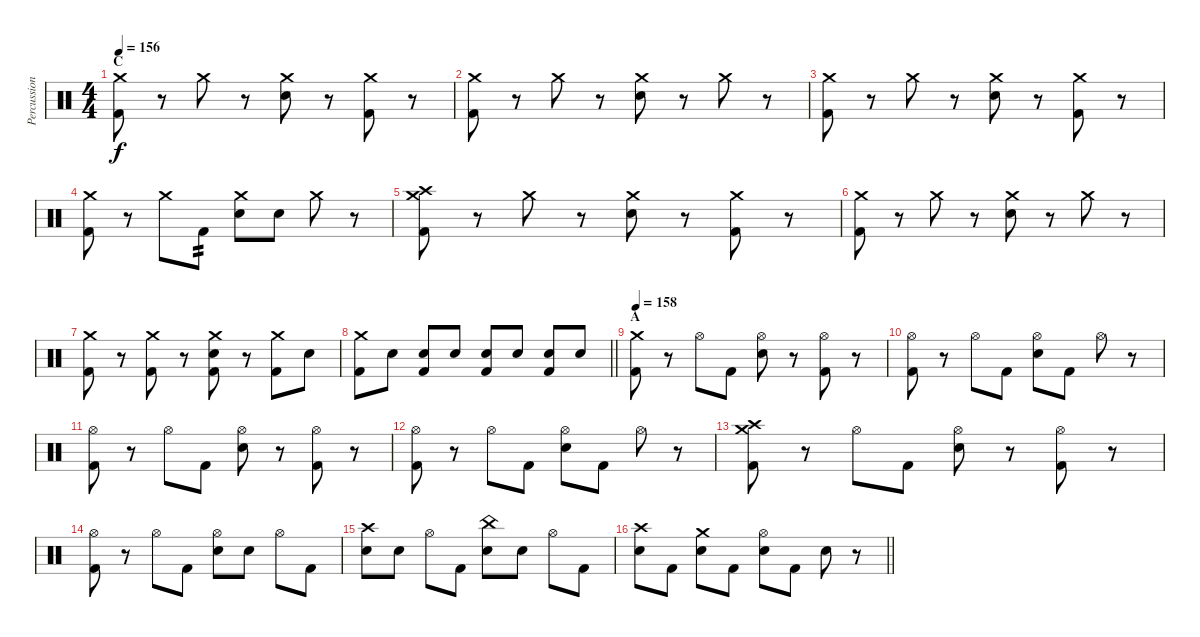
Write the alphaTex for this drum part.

\track ("Percussion" "Percussion") {instrument percussion}
\staff {score}
\articulation defaults
\ts (4 4)
\section ("" "C")
\tempo 156
\clef neutral
\ks c
("Crash medium (hit)" "Kick (hit) 2").8{dy f} r.8 "Crash medium (hit)".8 r.8 ("Crash medium (hit)" "Snare (hit) 2").8 r.8 ("Crash medium (hit)" "Kick (hit) 2").8 r.8 |
("Crash medium (hit)" "Kick (hit) 2").8 r.8 "Crash medium (hit)".8 r.8 ("Crash medium (hit)" "Snare (hit) 2").8 r.8 "Crash medium (hit)".8 r.8 |
("Crash medium (hit)" "Kick (hit) 2").8 r.8 "Crash medium (hit)".8 r.8 ("Crash medium (hit)" "Snare (hit) 2").8 r.8 ("Crash medium (hit)" "Kick (hit) 2").8 r.8 |
("Crash medium (hit)" "Kick (hit) 2").8 r.8 "Crash medium (hit)".8 "Kick (hit) 2".8{tp 2} ("Crash medium (hit)" "Snare (hit) 2").8 "Snare (hit) 2".8 "Crash medium (hit)".8 r.8 |
("Crash high (hit)" "Crash medium (hit)" "Kick (hit) 2").8 r.8 "Crash medium (hit)".8 r.8 ("Crash medium (hit)" "Snare (hit) 2").8 r.8 ("Crash medium (hit)" "Kick (hit) 2").8 r.8 |
("Crash medium (hit)" "Kick (hit) 2").8 r.8 "Crash medium (hit)".8 r.8 ("Crash medium (hit)" "Snare (hit) 2").8 r.8 "Crash medium (hit)".8 r.8 |
("Crash medium (hit)" "Kick (hit) 2").8 r.8 ("Crash medium (hit)" "Kick (hit) 2").8 r.8 ("Crash medium (hit)" "Snare (hit) 2" "Kick (hit) 2").8 r.8 ("Crash medium (hit)" "Kick (hit) 2").8 "Snare (hit) 2".8 |
\barLineRight lightlight
("Crash medium (hit)" "Kick (hit) 2").8 "Snare (hit) 2".8 ("Snare (hit) 2" "Kick (hit) 2").8 "Snare (hit) 2".8 ("Snare (hit) 2" "Kick (hit) 2").8 "Snare (hit) 2".8 ("Snare (hit) 2" "Kick (hit) 2").8 "Snare (hit) 2".8 |
\section ("" "A")
\tempo 158
("Crash medium (hit)" "Kick (hit) 2").8 r.8 "Hi-Hat (open)".8 "Kick (hit) 2".8 ("Hi-Hat (open)" "Snare (hit) 2").8 r.8 ("Hi-Hat (open)" "Kick (hit) 2").8 r.8 |
("Hi-Hat (open)" "Kick (hit) 2").8 r.8 "Hi-Hat (open)".8 "Kick (hit) 2".8 ("Hi-Hat (open)" "Snare (hit) 2").8 "Kick (hit) 2".8 "Hi-Hat (open)".8 r.8 |
("Hi-Hat (open)" "Kick (hit) 2").8 r.8 "Hi-Hat (open)".8 "Kick (hit) 2".8 ("Hi-Hat (open)" "Snare (hit) 2").8 r.8 ("Hi-Hat (open)" "Kick (hit) 2").8 r.8 |
("Hi-Hat (open)" "Kick (hit) 2").8 r.8 "Hi-Hat (open)".8 "Kick (hit) 2".8 ("Hi-Hat (open)" "Snare (hit) 2").8 "Kick (hit) 2".8 "Hi-Hat (open)".8 r.8 |
("Crash high (hit)" "Crash medium (hit)" "Kick (hit) 2").8 r.8 "Hi-Hat (open)".8 "Kick (hit) 2".8 ("Hi-Hat (open)" "Snare (hit) 2").8 r.8 ("Hi-Hat (open)" "Kick (hit) 2").8 r.8 |
("Hi-Hat (open)" "Kick (hit) 2").8 r.8 "Hi-Hat (open)".8 "Kick (hit) 2".8 ("Hi-Hat (open)" "Snare (hit) 2").8 "Snare (hit) 2".8 "Hi-Hat (open)".8 "Kick (hit) 2".8 |
("Crash high (hit)" "Snare (hit) 2").8 "Snare (hit) 2".8 "Hi-Hat (open)".8 "Kick (hit) 2".8 ("China (hit)" "Snare (hit) 2").8 "Snare (hit) 2".8 "Hi-Hat (open)".8 "Kick (hit) 2".8 |
\barLineRight lightlight
("Crash high (hit)" "Snare (hit) 2").8 "Kick (hit) 2".8 ("Crash medium (hit)" "Snare (hit) 2").8 "Kick (hit) 2".8 ("Hi-Hat (open)" "Snare (hit) 2").8 "Kick (hit) 2".8 "Snare (hit) 2".8 r.8
